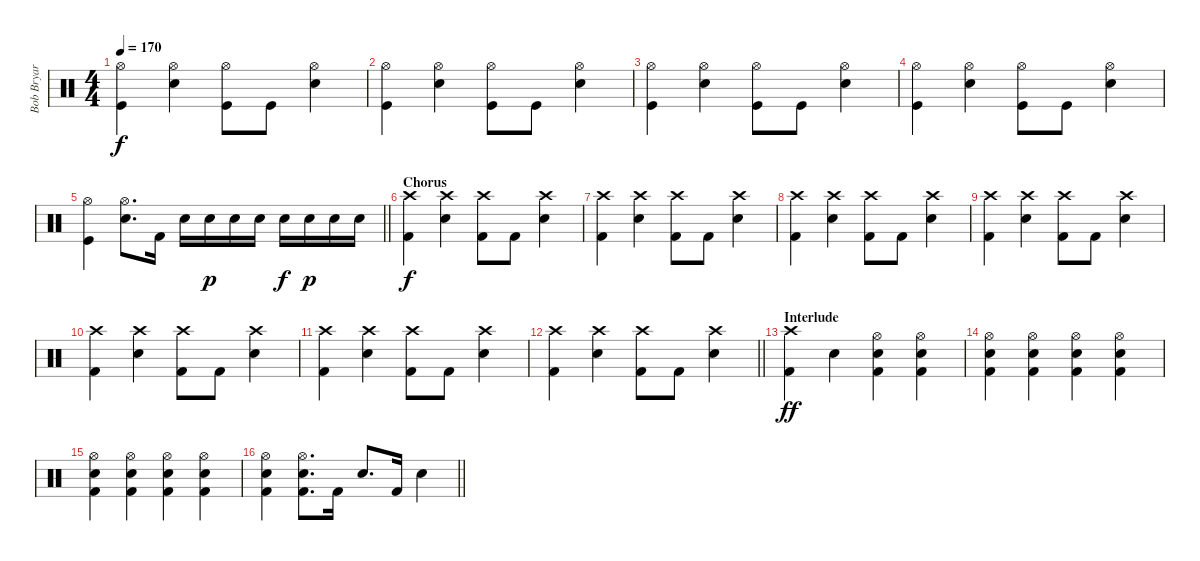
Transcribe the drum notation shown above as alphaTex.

\track ("Bob Bryar - Drums" "Bob Bryar ") {instrument percussion}
\staff {score}
\articulation defaults
\ts (4 4)
\tempo 170
\clef neutral
\ks c
("Hi-Hat (open)" "Kick (hit)").4{dy f} ("Snare (hit) 2" "Hi-Hat (open)").4 ("Hi-Hat (open)" "Kick (hit)").8 "Kick (hit)".8 ("Snare (hit) 2" "Hi-Hat (open)").4 |
("Hi-Hat (open)" "Kick (hit)").4 ("Snare (hit) 2" "Hi-Hat (open)").4 ("Hi-Hat (open)" "Kick (hit)").8 "Kick (hit)".8 ("Snare (hit) 2" "Hi-Hat (open)").4 |
("Hi-Hat (open)" "Kick (hit)").4 ("Snare (hit) 2" "Hi-Hat (open)").4 ("Hi-Hat (open)" "Kick (hit)").8 "Kick (hit)".8 ("Snare (hit) 2" "Hi-Hat (open)").4 |
("Hi-Hat (open)" "Kick (hit)").4 ("Snare (hit) 2" "Hi-Hat (open)").4 ("Hi-Hat (open)" "Kick (hit)").8 "Kick (hit)".8 ("Snare (hit) 2" "Hi-Hat (open)").4 |
\barLineRight lightlight
("Hi-Hat (open)" "Kick (hit)").4 ("Snare (hit) 2" "Hi-Hat (open)").8{d} "Kick (hit) 2".16 "Snare (hit) 2".16 "Snare (hit) 2".16{dy p} "Snare (hit) 2".16 "Snare (hit) 2".16 "Snare (hit) 2".16{dy f} "Snare (hit) 2".16{dy p} "Snare (hit) 2".16 "Snare (hit) 2".16 |
\section ("" "Chorus")
("Crash high (hit)" "Kick (hit) 2").4{dy f} ("Snare (hit) 2" "Crash high (hit)").4 ("Kick (hit) 2" "Crash high (hit)").8 "Kick (hit) 2".8 ("Snare (hit) 2" "Crash high (hit)").4 |
("Crash high (hit)" "Kick (hit) 2").4 ("Snare (hit) 2" "Crash high (hit)").4 ("Kick (hit) 2" "Crash high (hit)").8 "Kick (hit) 2".8 ("Snare (hit) 2" "Crash high (hit)").4 |
("Crash high (hit)" "Kick (hit) 2").4 ("Snare (hit) 2" "Crash high (hit)").4 ("Kick (hit) 2" "Crash high (hit)").8 "Kick (hit) 2".8 ("Snare (hit) 2" "Crash high (hit)").4 |
("Crash high (hit)" "Kick (hit) 2").4 ("Snare (hit) 2" "Crash high (hit)").4 ("Kick (hit) 2" "Crash high (hit)").8 "Kick (hit) 2".8 ("Snare (hit) 2" "Crash high (hit)").4 |
("Crash high (hit)" "Kick (hit) 2").4 ("Snare (hit) 2" "Crash high (hit)").4 ("Kick (hit) 2" "Crash high (hit)").8 "Kick (hit) 2".8 ("Snare (hit) 2" "Crash high (hit)").4 |
("Crash high (hit)" "Kick (hit) 2").4 ("Snare (hit) 2" "Crash high (hit)").4 ("Kick (hit) 2" "Crash high (hit)").8 "Kick (hit) 2".8 ("Snare (hit) 2" "Crash high (hit)").4 |
\barLineRight lightlight
("Crash high (hit)" "Kick (hit) 2").4 ("Snare (hit) 2" "Crash high (hit)").4 ("Kick (hit) 2" "Crash high (hit)").8 "Kick (hit) 2".8 ("Snare (hit) 2" "Crash high (hit)").4 |
\section ("" "Interlude")
("Crash high (hit)" "Kick (hit) 2").4{dy ff} "Snare (hit) 2".4 ("Hi-Hat (open)" "Snare (hit) 2" "Kick (hit) 2").4 ("Hi-Hat (open)" "Snare (hit) 2" "Kick (hit) 2").4 |
("Hi-Hat (open)" "Snare (hit) 2" "Kick (hit) 2").4 ("Hi-Hat (open)" "Snare (hit) 2" "Kick (hit) 2").4 ("Hi-Hat (open)" "Snare (hit) 2" "Kick (hit) 2").4 ("Hi-Hat (open)" "Snare (hit) 2" "Kick (hit) 2").4 |
("Hi-Hat (open)" "Snare (hit) 2" "Kick (hit) 2").4 ("Hi-Hat (open)" "Snare (hit) 2" "Kick (hit) 2").4 ("Hi-Hat (open)" "Snare (hit) 2" "Kick (hit) 2").4 ("Hi-Hat (open)" "Snare (hit) 2" "Kick (hit) 2").4 |
\barLineRight lightlight
("Hi-Hat (open)" "Snare (hit) 2" "Kick (hit) 2").4 ("Hi-Hat (open)" "Snare (hit) 2" "Kick (hit) 2").8{d} "Kick (hit) 2".16 "Snare (hit) 2".8{d} "Kick (hit) 2".16 "Snare (hit) 2".4
